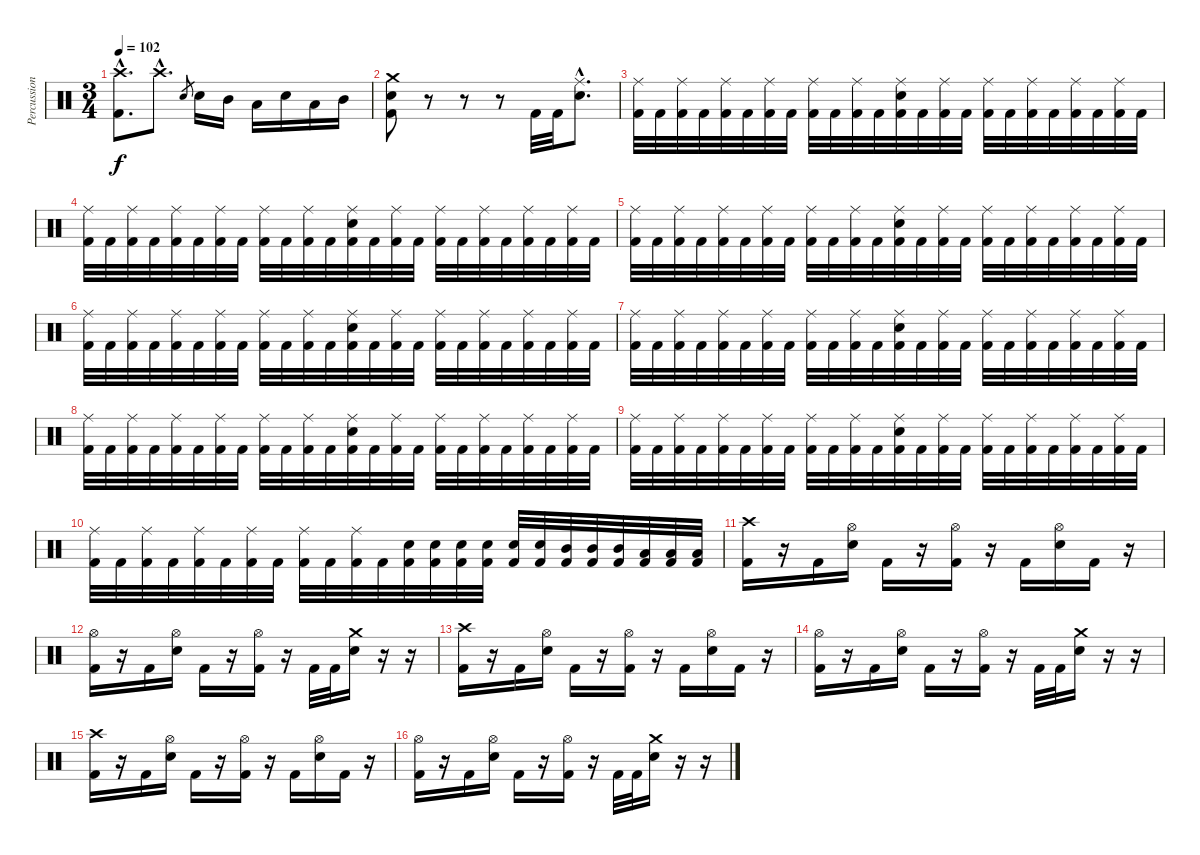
\track ("Percussion" "Percussion") {instrument percussion}
\staff {score}
\articulation defaults
\ts (3 4)
\tempo 102
\clef neutral
\ks c
("Crash high (hit)"{hac} "Kick (hit) 2"{hac}).8{d dy f} "Crash high (hit)"{hac}.8{d} "Electric Snare (hit)".8{gr} "Electric Snare (hit)".16 "Mid Tom (hit)".16 "Low Tom (hit)".16 "Electric Snare (hit)".16 "Low Tom (hit)".16 "Mid Tom (hit)".16 |
("Crash medium (hit)" "Electric Snare (hit)" "Kick (hit) 2").8 r.8 r.8 r.8 "Kick (hit) 2".32 "Kick (hit) 2".32 ("Ride (middle)"{hac} "Electric Snare (hit)"{hac}).8{d} |
("Ride (middle)" "Kick (hit) 2").32 "Kick (hit) 2".32 ("Ride (middle)" "Kick (hit) 2").32 "Kick (hit) 2".32 ("Ride (middle)" "Kick (hit) 2").32 "Kick (hit) 2".32 ("Ride (middle)" "Kick (hit) 2").32 "Kick (hit) 2".32 ("Ride (middle)" "Kick (hit) 2").32 "Kick (hit) 2".32 ("Ride (middle)" "Kick (hit) 2").32 "Kick (hit) 2".32 ("Ride (middle)" "Electric Snare (hit)" "Kick (hit) 2").32 "Kick (hit) 2".32 ("Ride (middle)" "Kick (hit) 2").32 "Kick (hit) 2".32 ("Ride (middle)" "Kick (hit) 2").32 "Kick (hit) 2".32 ("Ride (middle)" "Kick (hit) 2").32 "Kick (hit) 2".32 ("Ride (middle)" "Kick (hit) 2").32 "Kick (hit) 2".32 ("Ride (middle)" "Kick (hit) 2").32 "Kick (hit) 2".32 |
("Ride (middle)" "Kick (hit) 2").32 "Kick (hit) 2".32 ("Ride (middle)" "Kick (hit) 2").32 "Kick (hit) 2".32 ("Ride (middle)" "Kick (hit) 2").32 "Kick (hit) 2".32 ("Ride (middle)" "Kick (hit) 2").32 "Kick (hit) 2".32 ("Ride (middle)" "Kick (hit) 2").32 "Kick (hit) 2".32 ("Ride (middle)" "Kick (hit) 2").32 "Kick (hit) 2".32 ("Ride (middle)" "Electric Snare (hit)" "Kick (hit) 2").32 "Kick (hit) 2".32 ("Ride (middle)" "Kick (hit) 2").32 "Kick (hit) 2".32 ("Ride (middle)" "Kick (hit) 2").32 "Kick (hit) 2".32 ("Ride (middle)" "Kick (hit) 2").32 "Kick (hit) 2".32 ("Ride (middle)" "Kick (hit) 2").32 "Kick (hit) 2".32 ("Ride (middle)" "Kick (hit) 2").32 "Kick (hit) 2".32 |
("Ride (middle)" "Kick (hit) 2").32 "Kick (hit) 2".32 ("Ride (middle)" "Kick (hit) 2").32 "Kick (hit) 2".32 ("Ride (middle)" "Kick (hit) 2").32 "Kick (hit) 2".32 ("Ride (middle)" "Kick (hit) 2").32 "Kick (hit) 2".32 ("Ride (middle)" "Kick (hit) 2").32 "Kick (hit) 2".32 ("Ride (middle)" "Kick (hit) 2").32 "Kick (hit) 2".32 ("Ride (middle)" "Electric Snare (hit)" "Kick (hit) 2").32 "Kick (hit) 2".32 ("Ride (middle)" "Kick (hit) 2").32 "Kick (hit) 2".32 ("Ride (middle)" "Kick (hit) 2").32 "Kick (hit) 2".32 ("Ride (middle)" "Kick (hit) 2").32 "Kick (hit) 2".32 ("Ride (middle)" "Kick (hit) 2").32 "Kick (hit) 2".32 ("Ride (middle)" "Kick (hit) 2").32 "Kick (hit) 2".32 |
("Ride (middle)" "Kick (hit) 2").32 "Kick (hit) 2".32 ("Ride (middle)" "Kick (hit) 2").32 "Kick (hit) 2".32 ("Ride (middle)" "Kick (hit) 2").32 "Kick (hit) 2".32 ("Ride (middle)" "Kick (hit) 2").32 "Kick (hit) 2".32 ("Ride (middle)" "Kick (hit) 2").32 "Kick (hit) 2".32 ("Ride (middle)" "Kick (hit) 2").32 "Kick (hit) 2".32 ("Ride (middle)" "Electric Snare (hit)" "Kick (hit) 2").32 "Kick (hit) 2".32 ("Ride (middle)" "Kick (hit) 2").32 "Kick (hit) 2".32 ("Ride (middle)" "Kick (hit) 2").32 "Kick (hit) 2".32 ("Ride (middle)" "Kick (hit) 2").32 "Kick (hit) 2".32 ("Ride (middle)" "Kick (hit) 2").32 "Kick (hit) 2".32 ("Ride (middle)" "Kick (hit) 2").32 "Kick (hit) 2".32 |
("Ride (middle)" "Kick (hit) 2").32 "Kick (hit) 2".32 ("Ride (middle)" "Kick (hit) 2").32 "Kick (hit) 2".32 ("Ride (middle)" "Kick (hit) 2").32 "Kick (hit) 2".32 ("Ride (middle)" "Kick (hit) 2").32 "Kick (hit) 2".32 ("Ride (middle)" "Kick (hit) 2").32 "Kick (hit) 2".32 ("Ride (middle)" "Kick (hit) 2").32 "Kick (hit) 2".32 ("Ride (middle)" "Electric Snare (hit)" "Kick (hit) 2").32 "Kick (hit) 2".32 ("Ride (middle)" "Kick (hit) 2").32 "Kick (hit) 2".32 ("Ride (middle)" "Kick (hit) 2").32 "Kick (hit) 2".32 ("Ride (middle)" "Kick (hit) 2").32 "Kick (hit) 2".32 ("Ride (middle)" "Kick (hit) 2").32 "Kick (hit) 2".32 ("Ride (middle)" "Kick (hit) 2").32 "Kick (hit) 2".32 |
("Ride (middle)" "Kick (hit) 2").32 "Kick (hit) 2".32 ("Ride (middle)" "Kick (hit) 2").32 "Kick (hit) 2".32 ("Ride (middle)" "Kick (hit) 2").32 "Kick (hit) 2".32 ("Ride (middle)" "Kick (hit) 2").32 "Kick (hit) 2".32 ("Ride (middle)" "Kick (hit) 2").32 "Kick (hit) 2".32 ("Ride (middle)" "Kick (hit) 2").32 "Kick (hit) 2".32 ("Ride (middle)" "Electric Snare (hit)" "Kick (hit) 2").32 "Kick (hit) 2".32 ("Ride (middle)" "Kick (hit) 2").32 "Kick (hit) 2".32 ("Ride (middle)" "Kick (hit) 2").32 "Kick (hit) 2".32 ("Ride (middle)" "Kick (hit) 2").32 "Kick (hit) 2".32 ("Ride (middle)" "Kick (hit) 2").32 "Kick (hit) 2".32 ("Ride (middle)" "Kick (hit) 2").32 "Kick (hit) 2".32 |
("Ride (middle)" "Kick (hit) 2").32 "Kick (hit) 2".32 ("Ride (middle)" "Kick (hit) 2").32 "Kick (hit) 2".32 ("Ride (middle)" "Kick (hit) 2").32 "Kick (hit) 2".32 ("Ride (middle)" "Kick (hit) 2").32 "Kick (hit) 2".32 ("Ride (middle)" "Kick (hit) 2").32 "Kick (hit) 2".32 ("Ride (middle)" "Kick (hit) 2").32 "Kick (hit) 2".32 ("Ride (middle)" "Electric Snare (hit)" "Kick (hit) 2").32 "Kick (hit) 2".32 ("Ride (middle)" "Kick (hit) 2").32 "Kick (hit) 2".32 ("Ride (middle)" "Kick (hit) 2").32 "Kick (hit) 2".32 ("Ride (middle)" "Kick (hit) 2").32 "Kick (hit) 2".32 ("Ride (middle)" "Kick (hit) 2").32 "Kick (hit) 2".32 ("Ride (middle)" "Kick (hit) 2").32 "Kick (hit) 2".32 |
("Ride (middle)" "Kick (hit) 2").32 "Kick (hit) 2".32 ("Ride (middle)" "Kick (hit) 2").32 "Kick (hit) 2".32 ("Ride (middle)" "Kick (hit) 2").32 "Kick (hit) 2".32 ("Ride (middle)" "Kick (hit) 2").32 "Kick (hit) 2".32 ("Ride (middle)" "Kick (hit) 2").32 "Kick (hit) 2".32 ("Ride (middle)" "Kick (hit) 2").32 "Kick (hit) 2".32 ("Electric Snare (hit)" "Kick (hit) 2").32 ("Electric Snare (hit)" "Kick (hit) 2").32 ("Electric Snare (hit)" "Kick (hit) 2").32 ("Electric Snare (hit)" "Kick (hit) 2").32 ("Electric Snare (hit)" "Kick (hit) 2").32 ("Electric Snare (hit)" "Kick (hit) 2").32 ("Mid Tom (hit)" "Kick (hit) 2").32 ("Mid Tom (hit)" "Kick (hit) 2").32 ("Mid Tom (hit)" "Kick (hit) 2").32 ("Low Tom (hit)" "Kick (hit) 2").32 ("Low Tom (hit)" "Kick (hit) 2").32 ("Low Tom (hit)" "Kick (hit) 2").32 |
("Crash high (hit)" "Kick (hit) 2").16 r.16 "Kick (hit) 2".16 ("Hi-Hat (open)" "Electric Snare (hit)").16 "Kick (hit) 2".16 r.16 ("Hi-Hat (open)" "Kick (hit) 2").16 r.16 "Kick (hit) 2".16 ("Hi-Hat (open)" "Electric Snare (hit)").16 "Kick (hit) 2".16 r.16 |
("Hi-Hat (open)" "Kick (hit) 2").16 r.16 "Kick (hit) 2".16 ("Hi-Hat (open)" "Electric Snare (hit)").16 "Kick (hit) 2".16 r.16 ("Hi-Hat (open)" "Kick (hit) 2").16 r.16 "Kick (hit) 2".32 "Kick (hit) 2".32 ("Crash medium (hit)" "Electric Snare (hit)").16 r.16 r.16 |
("Crash high (hit)" "Kick (hit) 2").16 r.16 "Kick (hit) 2".16 ("Hi-Hat (open)" "Electric Snare (hit)").16 "Kick (hit) 2".16 r.16 ("Hi-Hat (open)" "Kick (hit) 2").16 r.16 "Kick (hit) 2".16 ("Hi-Hat (open)" "Electric Snare (hit)").16 "Kick (hit) 2".16 r.16 |
("Hi-Hat (open)" "Kick (hit) 2").16 r.16 "Kick (hit) 2".16 ("Hi-Hat (open)" "Electric Snare (hit)").16 "Kick (hit) 2".16 r.16 ("Hi-Hat (open)" "Kick (hit) 2").16 r.16 "Kick (hit) 2".32 "Kick (hit) 2".32 ("Crash medium (hit)" "Electric Snare (hit)").16 r.16 r.16 |
("Crash high (hit)" "Kick (hit) 2").16 r.16 "Kick (hit) 2".16 ("Hi-Hat (open)" "Electric Snare (hit)").16 "Kick (hit) 2".16 r.16 ("Hi-Hat (open)" "Kick (hit) 2").16 r.16 "Kick (hit) 2".16 ("Hi-Hat (open)" "Electric Snare (hit)").16 "Kick (hit) 2".16 r.16 |
("Hi-Hat (open)" "Kick (hit) 2").16 r.16 "Kick (hit) 2".16 ("Hi-Hat (open)" "Electric Snare (hit)").16 "Kick (hit) 2".16 r.16 ("Hi-Hat (open)" "Kick (hit) 2").16 r.16 "Kick (hit) 2".32 "Kick (hit) 2".32 ("Crash medium (hit)" "Electric Snare (hit)").16 r.16 r.16
